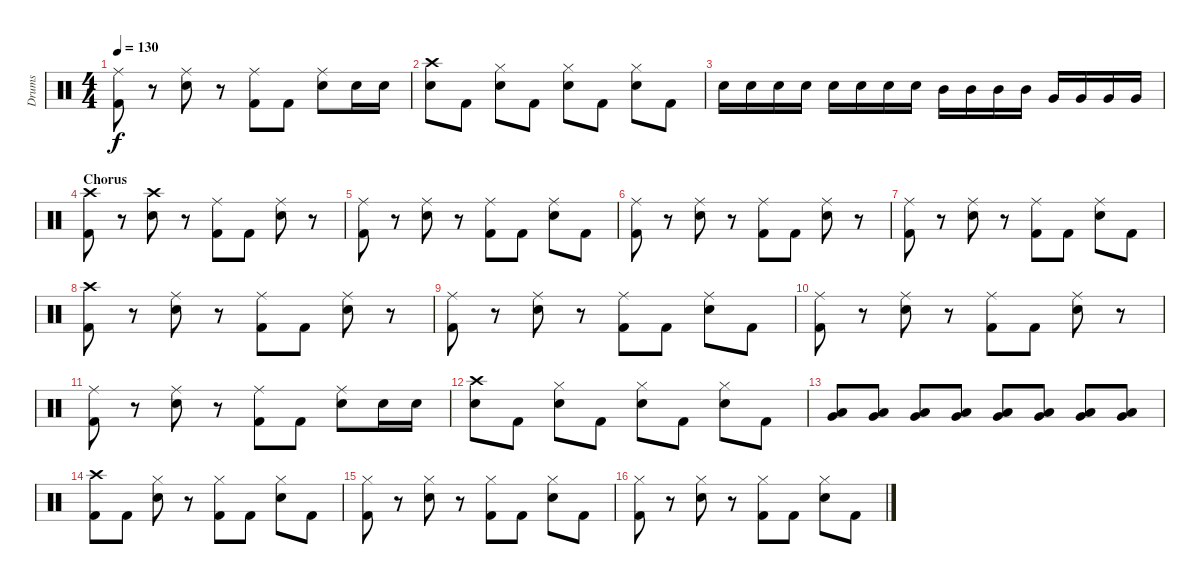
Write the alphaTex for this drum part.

\track ("Drums" "Drums") {instrument percussion}
\staff {score}
\articulation defaults
\ts (4 4)
\tempo 130
\clef neutral
\ks c
("Ride (middle)" "Kick (hit) 2").8{dy f} r.8 ("Ride (middle)" "Electric Snare (hit)").8 r.8 ("Ride (middle)" "Kick (hit) 2").8 "Kick (hit) 2".8 ("Ride (middle)" "Electric Snare (hit)").8 "Electric Snare (hit)".16 "Electric Snare (hit)".16 |
("Crash high (hit)" "Electric Snare (hit)").8 "Kick (hit) 2".8 ("Hi-Hat (closed)" "Electric Snare (hit)").8 "Kick (hit) 2".8 ("Hi-Hat (closed)" "Electric Snare (hit)").8 "Kick (hit) 2".8 ("Hi-Hat (closed)" "Electric Snare (hit)").8 "Kick (hit) 2".8 |
"Electric Snare (hit)".16 "Electric Snare (hit)".16 "Electric Snare (hit)".16 "Electric Snare (hit)".16 "Electric Snare (hit)".16 "Electric Snare (hit)".16 "Electric Snare (hit)".16 "Electric Snare (hit)".16 "Mid Tom (hit)".16 "Mid Tom (hit)".16 "Mid Tom (hit)".16 "Mid Tom (hit)".16 "Very Low Tom (hit)".16 "Very Low Tom (hit)".16 "Very Low Tom (hit)".16 "Very Low Tom (hit)".16 |
\section ("" "Chorus")
("Crash high (hit)" "Kick (hit) 2").8 r.8 ("Crash high (hit)" "Electric Snare (hit)").8 r.8 ("Ride (middle)" "Kick (hit) 2").8 "Kick (hit) 2".8 ("Ride (middle)" "Electric Snare (hit)").8 r.8 |
("Ride (middle)" "Kick (hit) 2").8 r.8 ("Ride (middle)" "Electric Snare (hit)").8 r.8 ("Ride (middle)" "Kick (hit) 2").8 "Kick (hit) 2".8 ("Ride (middle)" "Electric Snare (hit)").8 "Kick (hit) 2".8 |
("Ride (middle)" "Kick (hit) 2").8 r.8 ("Ride (middle)" "Electric Snare (hit)").8 r.8 ("Ride (middle)" "Kick (hit) 2").8 "Kick (hit) 2".8 ("Ride (middle)" "Electric Snare (hit)").8 r.8 |
("Ride (middle)" "Kick (hit) 2").8 r.8 ("Ride (middle)" "Electric Snare (hit)").8 r.8 ("Ride (middle)" "Kick (hit) 2").8 "Kick (hit) 2".8 ("Ride (middle)" "Electric Snare (hit)").8 "Kick (hit) 2".8 |
("Crash high (hit)" "Kick (hit) 2").8 r.8 ("Ride (middle)" "Electric Snare (hit)").8 r.8 ("Ride (middle)" "Kick (hit) 2").8 "Kick (hit) 2".8 ("Ride (middle)" "Electric Snare (hit)").8 r.8 |
("Ride (middle)" "Kick (hit) 2").8 r.8 ("Ride (middle)" "Electric Snare (hit)").8 r.8 ("Ride (middle)" "Kick (hit) 2").8 "Kick (hit) 2".8 ("Ride (middle)" "Electric Snare (hit)").8 "Kick (hit) 2".8 |
("Ride (middle)" "Kick (hit) 2").8 r.8 ("Ride (middle)" "Electric Snare (hit)").8 r.8 ("Ride (middle)" "Kick (hit) 2").8 "Kick (hit) 2".8 ("Ride (middle)" "Electric Snare (hit)").8 r.8 |
("Ride (middle)" "Kick (hit) 2").8 r.8 ("Ride (middle)" "Electric Snare (hit)").8 r.8 ("Ride (middle)" "Kick (hit) 2").8 "Kick (hit) 2".8 ("Ride (middle)" "Electric Snare (hit)").8 "Electric Snare (hit)".16 "Electric Snare (hit)".16 |
("Crash high (hit)" "Electric Snare (hit)").8 "Kick (hit) 2".8 ("Hi-Hat (closed)" "Electric Snare (hit)").8 "Kick (hit) 2".8 ("Hi-Hat (closed)" "Electric Snare (hit)").8 "Kick (hit) 2".8 ("Hi-Hat (closed)" "Electric Snare (hit)").8 "Kick (hit) 2".8 |
("Very Low Tom (hit)" "Low Tom (hit)").8 ("Very Low Tom (hit)" "Low Tom (hit)").8 ("Very Low Tom (hit)" "Low Tom (hit)").8 ("Very Low Tom (hit)" "Low Tom (hit)").8 ("Very Low Tom (hit)" "Low Tom (hit)").8 ("Very Low Tom (hit)" "Low Tom (hit)").8 ("Very Low Tom (hit)" "Low Tom (hit)").8 ("Very Low Tom (hit)" "Low Tom (hit)").8 |
("Crash high (hit)" "Kick (hit) 2").8 "Kick (hit) 2".8 ("Hi-Hat (closed)" "Electric Snare (hit)").8 r.8 ("Hi-Hat (closed)" "Kick (hit) 2").8 "Kick (hit) 2".8 ("Hi-Hat (closed)" "Electric Snare (hit)").8 "Kick (hit) 2".8 |
("Hi-Hat (closed)" "Kick (hit) 2").8 r.8 ("Hi-Hat (closed)" "Electric Snare (hit)").8 r.8 ("Hi-Hat (closed)" "Kick (hit) 2").8 "Kick (hit) 2".8 ("Hi-Hat (closed)" "Electric Snare (hit)").8 "Kick (hit) 2".8 |
("Hi-Hat (closed)" "Kick (hit) 2").8 r.8 ("Hi-Hat (closed)" "Electric Snare (hit)").8 r.8 ("Hi-Hat (closed)" "Kick (hit) 2").8 "Kick (hit) 2".8 ("Hi-Hat (closed)" "Electric Snare (hit)").8 "Kick (hit) 2".8
